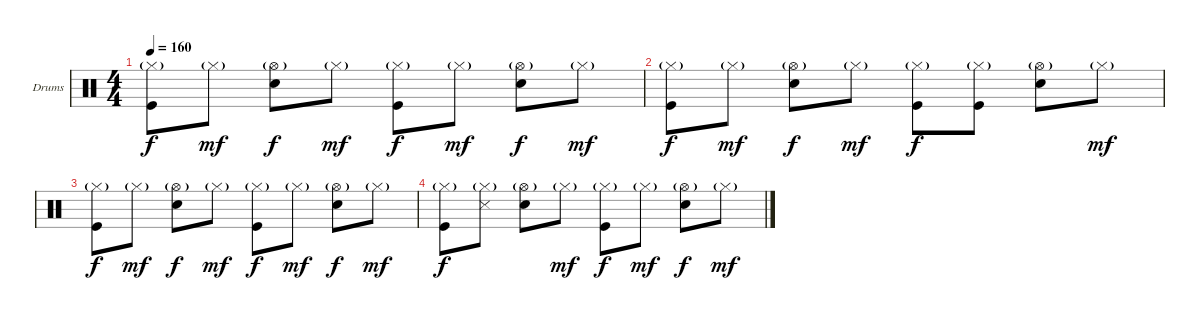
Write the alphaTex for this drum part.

\bracketExtendMode groupsimilarinstruments
\firstSystemTrackNameOrientation horizontal
\otherSystemsTrackNameOrientation horizontal
\track ("Ударные" "Drums") {instrument percussion}
\staff {score}
\articulation defaults
\ts (4 4)
\tempo 160
\clef neutral
\ks c
("Hi-Hat (closed)"{g} "Kick (hit)").8{dy f} "Hi-Hat (closed)"{g}.8{dy mf} ("Hi-Hat (open)"{g} "Snare (hit) 2").8{dy f} "Hi-Hat (closed)"{g}.8{dy mf} ("Hi-Hat (closed)"{g} "Kick (hit)").8{dy f} "Hi-Hat (closed)"{g}.8{dy mf} ("Hi-Hat (open)"{g} "Snare (hit) 2").8{dy f} "Hi-Hat (closed)"{g}.8{dy mf} |
("Hi-Hat (closed)"{g} "Kick (hit)").8{dy f} "Hi-Hat (closed)"{g}.8{dy mf} ("Hi-Hat (open)"{g} "Snare (hit) 2").8{dy f} "Hi-Hat (closed)"{g}.8{dy mf} ("Hi-Hat (closed)"{g} "Kick (hit)").8{dy f} ("Hi-Hat (closed)"{g} "Kick (hit)").8 ("Hi-Hat (open)"{g} "Snare (hit) 2").8 "Hi-Hat (closed)"{g}.8{dy mf} |
("Hi-Hat (closed)"{g} "Kick (hit)").8{dy f} "Hi-Hat (closed)"{g}.8{dy mf} ("Hi-Hat (open)"{g} "Snare (hit) 2").8{dy f} "Hi-Hat (closed)"{g}.8{dy mf} ("Hi-Hat (closed)"{g} "Kick (hit)").8{dy f} "Hi-Hat (closed)"{g}.8{dy mf} ("Hi-Hat (open)"{g} "Snare (hit) 2").8{dy f} "Hi-Hat (closed)"{g}.8{dy mf} |
("Hi-Hat (closed)"{g} "Kick (hit)").8{dy f} ("Hi-Hat (closed)"{g} "Snare (side stick) 3").8 ("Hi-Hat (open)"{g} "Snare (hit) 2").8 "Hi-Hat (closed)"{g}.8{dy mf} ("Hi-Hat (closed)"{g} "Kick (hit)").8{dy f} "Hi-Hat (closed)"{g}.8{dy mf} ("Hi-Hat (open)"{g} "Snare (hit) 2").8{dy f} "Hi-Hat (closed)"{g}.8{dy mf}
